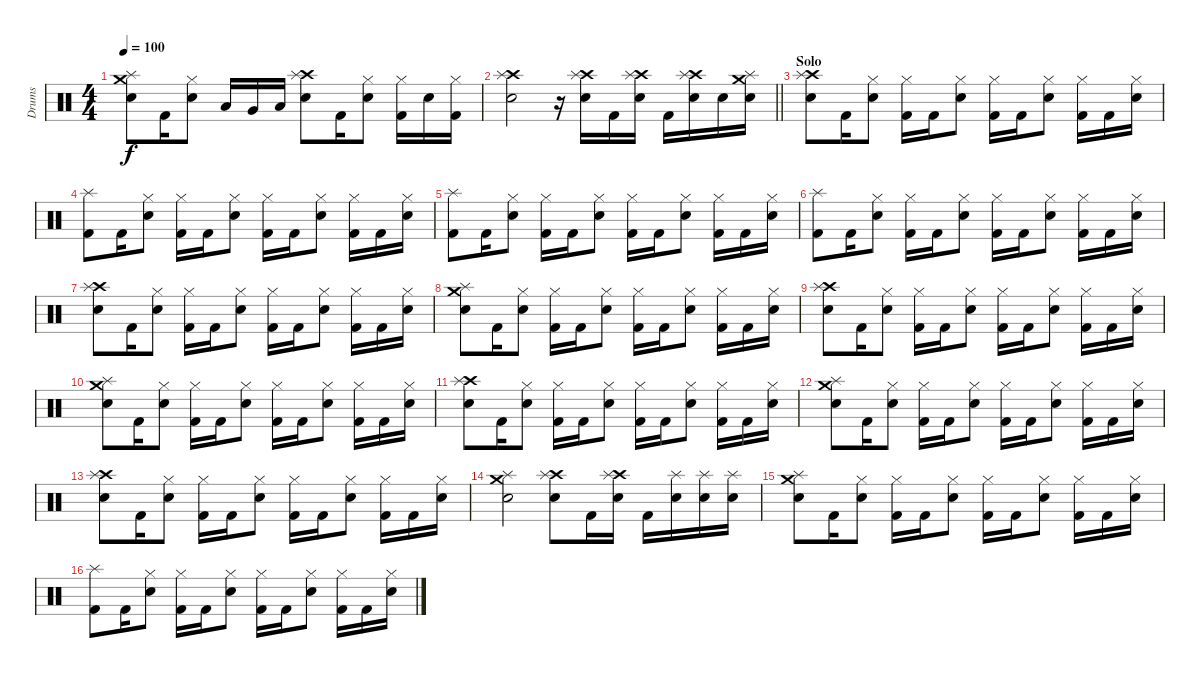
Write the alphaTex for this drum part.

\track ("Drums" "Drums") {instrument percussion}
\staff {score}
\articulation defaults
\ts (4 4)
\tempo 100
\clef neutral
\ks c
("Crash medium (hit)" "Splash (hit)" "Snare (hit) 2").8{dy f} "Kick (hit) 2".16 ("Hi-Hat (closed)" "Snare (hit) 2").8 "Low Tom (hit)".16 "Very Low Tom (hit)".16 "Low Floor Tom (hit)".16 ("Crash high (hit)" "Splash (hit)" "Snare (hit) 2").8 "Kick (hit) 2".16 ("Hi-Hat (closed)" "Snare (hit) 2").8 ("Hi-Hat (closed)" "Kick (hit) 2").16 "Snare (hit) 2".16 ("Hi-Hat (closed)" "Kick (hit) 2").16 |
\barLineRight lightlight
("Crash high (hit)" "Splash (hit)" "Snare (hit) 2").2 r.16 ("Crash high (hit)" "Splash (hit)" "Snare (hit) 2").16 "Kick (hit) 2".16 ("Crash high (hit)" "Splash (hit)" "Snare (hit) 2").16 "Kick (hit) 2".16 ("Crash high (hit)" "Splash (hit)" "Snare (hit) 2").16 "Snare (hit) 2".16 ("Crash medium (hit)" "Splash (hit)" "Snare (hit) 2").16 |
\section ("" "Solo")
("Crash high (hit)" "Splash (hit)" "Snare (hit) 2").8 "Kick (hit) 2".16 ("Hi-Hat (closed)" "Snare (hit) 2").8 ("Hi-Hat (closed)" "Kick (hit) 2").16 "Kick (hit) 2".16 ("Hi-Hat (closed)" "Snare (hit) 2").8 ("Hi-Hat (closed)" "Kick (hit) 2").16 "Kick (hit) 2".16 ("Hi-Hat (closed)" "Snare (hit) 2").8 ("Hi-Hat (closed)" "Kick (hit) 2").16 "Kick (hit) 2".16 ("Hi-Hat (closed)" "Snare (hit) 2").16 |
("Splash (hit)" "Kick (hit) 2").8 "Kick (hit) 2".16 ("Hi-Hat (closed)" "Snare (hit) 2").8 ("Hi-Hat (closed)" "Kick (hit) 2").16 "Kick (hit) 2".16 ("Hi-Hat (closed)" "Snare (hit) 2").8 ("Hi-Hat (closed)" "Kick (hit) 2").16 "Kick (hit) 2".16 ("Hi-Hat (closed)" "Snare (hit) 2").8 ("Hi-Hat (closed)" "Kick (hit) 2").16 "Kick (hit) 2".16 ("Hi-Hat (closed)" "Snare (hit) 2").16 |
("Splash (hit)" "Kick (hit) 2").8 "Kick (hit) 2".16 ("Hi-Hat (closed)" "Snare (hit) 2").8 ("Hi-Hat (closed)" "Kick (hit) 2").16 "Kick (hit) 2".16 ("Hi-Hat (closed)" "Snare (hit) 2").8 ("Hi-Hat (closed)" "Kick (hit) 2").16 "Kick (hit) 2".16 ("Hi-Hat (closed)" "Snare (hit) 2").8 ("Hi-Hat (closed)" "Kick (hit) 2").16 "Kick (hit) 2".16 ("Hi-Hat (closed)" "Snare (hit) 2").16 |
("Splash (hit)" "Kick (hit) 2").8 "Kick (hit) 2".16 ("Hi-Hat (closed)" "Snare (hit) 2").8 ("Hi-Hat (closed)" "Kick (hit) 2").16 "Kick (hit) 2".16 ("Hi-Hat (closed)" "Snare (hit) 2").8 ("Hi-Hat (closed)" "Kick (hit) 2").16 "Kick (hit) 2".16 ("Hi-Hat (closed)" "Snare (hit) 2").8 ("Hi-Hat (closed)" "Kick (hit) 2").16 "Kick (hit) 2".16 ("Hi-Hat (closed)" "Snare (hit) 2").16 |
("Crash high (hit)" "Splash (hit)" "Snare (hit) 2").8 "Kick (hit) 2".16 ("Hi-Hat (closed)" "Snare (hit) 2").8 ("Hi-Hat (closed)" "Kick (hit) 2").16 "Kick (hit) 2".16 ("Hi-Hat (closed)" "Snare (hit) 2").8 ("Hi-Hat (closed)" "Kick (hit) 2").16 "Kick (hit) 2".16 ("Hi-Hat (closed)" "Snare (hit) 2").8 ("Hi-Hat (closed)" "Kick (hit) 2").16 "Kick (hit) 2".16 ("Hi-Hat (closed)" "Snare (hit) 2").16 |
("Crash medium (hit)" "Splash (hit)" "Snare (hit) 2").8 "Kick (hit) 2".16 ("Hi-Hat (closed)" "Snare (hit) 2").8 ("Hi-Hat (closed)" "Kick (hit) 2").16 "Kick (hit) 2".16 ("Hi-Hat (closed)" "Snare (hit) 2").8 ("Hi-Hat (closed)" "Kick (hit) 2").16 "Kick (hit) 2".16 ("Hi-Hat (closed)" "Snare (hit) 2").8 ("Hi-Hat (closed)" "Kick (hit) 2").16 "Kick (hit) 2".16 ("Hi-Hat (closed)" "Snare (hit) 2").16 |
("Crash high (hit)" "Splash (hit)" "Snare (hit) 2").8 "Kick (hit) 2".16 ("Hi-Hat (closed)" "Snare (hit) 2").8 ("Hi-Hat (closed)" "Kick (hit) 2").16 "Kick (hit) 2".16 ("Hi-Hat (closed)" "Snare (hit) 2").8 ("Hi-Hat (closed)" "Kick (hit) 2").16 "Kick (hit) 2".16 ("Hi-Hat (closed)" "Snare (hit) 2").8 ("Hi-Hat (closed)" "Kick (hit) 2").16 "Kick (hit) 2".16 ("Hi-Hat (closed)" "Snare (hit) 2").16 |
("Crash medium (hit)" "Splash (hit)" "Snare (hit) 2").8 "Kick (hit) 2".16 ("Hi-Hat (closed)" "Snare (hit) 2").8 ("Hi-Hat (closed)" "Kick (hit) 2").16 "Kick (hit) 2".16 ("Hi-Hat (closed)" "Snare (hit) 2").8 ("Hi-Hat (closed)" "Kick (hit) 2").16 "Kick (hit) 2".16 ("Hi-Hat (closed)" "Snare (hit) 2").8 ("Hi-Hat (closed)" "Kick (hit) 2").16 "Kick (hit) 2".16 ("Hi-Hat (closed)" "Snare (hit) 2").16 |
("Crash high (hit)" "Splash (hit)" "Snare (hit) 2").8 "Kick (hit) 2".16 ("Hi-Hat (closed)" "Snare (hit) 2").8 ("Hi-Hat (closed)" "Kick (hit) 2").16 "Kick (hit) 2".16 ("Hi-Hat (closed)" "Snare (hit) 2").8 ("Hi-Hat (closed)" "Kick (hit) 2").16 "Kick (hit) 2".16 ("Hi-Hat (closed)" "Snare (hit) 2").8 ("Hi-Hat (closed)" "Kick (hit) 2").16 "Kick (hit) 2".16 ("Hi-Hat (closed)" "Snare (hit) 2").16 |
("Crash medium (hit)" "Splash (hit)" "Snare (hit) 2").8 "Kick (hit) 2".16 ("Hi-Hat (closed)" "Snare (hit) 2").8 ("Hi-Hat (closed)" "Kick (hit) 2").16 "Kick (hit) 2".16 ("Hi-Hat (closed)" "Snare (hit) 2").8 ("Hi-Hat (closed)" "Kick (hit) 2").16 "Kick (hit) 2".16 ("Hi-Hat (closed)" "Snare (hit) 2").8 ("Hi-Hat (closed)" "Kick (hit) 2").16 "Kick (hit) 2".16 ("Hi-Hat (closed)" "Snare (hit) 2").16 |
("Crash high (hit)" "Splash (hit)" "Snare (hit) 2").8 "Kick (hit) 2".16 ("Hi-Hat (closed)" "Snare (hit) 2").8 ("Hi-Hat (closed)" "Kick (hit) 2").16 "Kick (hit) 2".16 ("Hi-Hat (closed)" "Snare (hit) 2").8 ("Hi-Hat (closed)" "Kick (hit) 2").16 "Kick (hit) 2".16 ("Hi-Hat (closed)" "Snare (hit) 2").8 ("Hi-Hat (closed)" "Kick (hit) 2").16 "Kick (hit) 2".16 ("Hi-Hat (closed)" "Snare (hit) 2").16 |
("Crash medium (hit)" "Splash (hit)" "Snare (hit) 2").2 ("Crash high (hit)" "Splash (hit)" "Snare (hit) 2").8 "Kick (hit) 2".16 ("Crash high (hit)" "Splash (hit)" "Snare (hit) 2").16 "Kick (hit) 2".16 ("Splash (hit)" "Snare (hit) 2").16 ("Splash (hit)" "Snare (hit) 2").16 ("Splash (hit)" "Snare (hit) 2").16 |
("Crash medium (hit)" "Splash (hit)" "Snare (hit) 2").8 "Kick (hit) 2".16 ("Hi-Hat (closed)" "Snare (hit) 2").8 ("Hi-Hat (closed)" "Kick (hit) 2").16 "Kick (hit) 2".16 ("Hi-Hat (closed)" "Snare (hit) 2").8 ("Hi-Hat (closed)" "Kick (hit) 2").16 "Kick (hit) 2".16 ("Hi-Hat (closed)" "Snare (hit) 2").8 ("Hi-Hat (closed)" "Kick (hit) 2").16 "Kick (hit) 2".16 ("Hi-Hat (closed)" "Snare (hit) 2").16 |
("Splash (hit)" "Kick (hit) 2").8 "Kick (hit) 2".16 ("Hi-Hat (closed)" "Snare (hit) 2").8 ("Hi-Hat (closed)" "Kick (hit) 2").16 "Kick (hit) 2".16 ("Hi-Hat (closed)" "Snare (hit) 2").8 ("Hi-Hat (closed)" "Kick (hit) 2").16 "Kick (hit) 2".16 ("Hi-Hat (closed)" "Snare (hit) 2").8 ("Hi-Hat (closed)" "Kick (hit) 2").16 "Kick (hit) 2".16 ("Hi-Hat (closed)" "Snare (hit) 2").16
